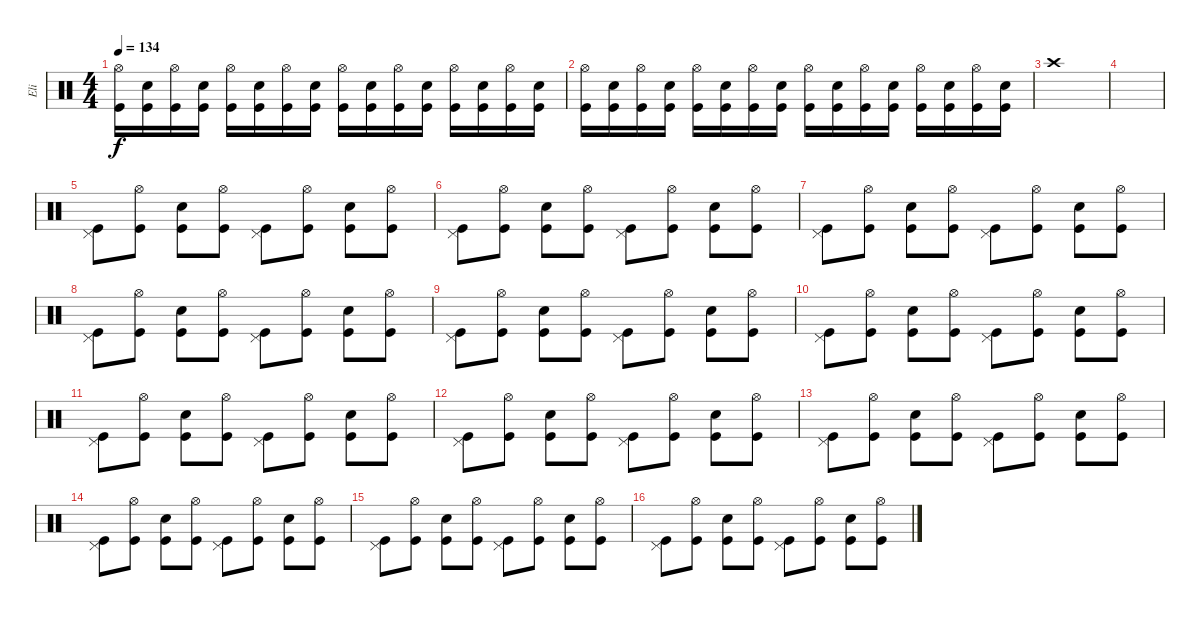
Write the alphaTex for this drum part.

\track ("Eli" "Eli") {instrument percussion}
\staff {score}
\articulation defaults
\ts (4 4)
\tempo 134
\clef neutral
\ks c
("Hi-Hat (open)" "Kick (hit)").16{dy f} ("Electric Snare (hit)" "Kick (hit)").16 ("Hi-Hat (open)" "Kick (hit)").16 ("Electric Snare (hit)" "Kick (hit)").16 ("Hi-Hat (open)" "Kick (hit)").16 ("Electric Snare (hit)" "Kick (hit)").16 ("Hi-Hat (open)" "Kick (hit)").16 ("Electric Snare (hit)" "Kick (hit)").16 ("Hi-Hat (open)" "Kick (hit)").16 ("Electric Snare (hit)" "Kick (hit)").16 ("Hi-Hat (open)" "Kick (hit)").16 ("Electric Snare (hit)" "Kick (hit)").16 ("Hi-Hat (open)" "Kick (hit)").16 ("Electric Snare (hit)" "Kick (hit)").16 ("Hi-Hat (open)" "Kick (hit)").16 ("Electric Snare (hit)" "Kick (hit)").16 |
("Hi-Hat (open)" "Kick (hit)").16 ("Electric Snare (hit)" "Kick (hit)").16 ("Hi-Hat (open)" "Kick (hit)").16 ("Electric Snare (hit)" "Kick (hit)").16 ("Hi-Hat (open)" "Kick (hit)").16 ("Electric Snare (hit)" "Kick (hit)").16 ("Hi-Hat (open)" "Kick (hit)").16 ("Electric Snare (hit)" "Kick (hit)").16 ("Hi-Hat (open)" "Kick (hit)").16 ("Electric Snare (hit)" "Kick (hit)").16 ("Hi-Hat (open)" "Kick (hit)").16 ("Electric Snare (hit)" "Kick (hit)").16 ("Hi-Hat (open)" "Kick (hit)").16 ("Electric Snare (hit)" "Kick (hit)").16 ("Hi-Hat (open)" "Kick (hit)").16 ("Electric Snare (hit)" "Kick (hit)").16 |
"Crash high (hit)".1 |
|
("Pedal Hi-Hat (hit)" "Kick (hit)").8 ("Hi-Hat (open)" "Kick (hit)").8 ("Electric Snare (hit)" "Kick (hit)").8 ("Hi-Hat (open)" "Kick (hit)").8 ("Pedal Hi-Hat (hit)" "Kick (hit)").8 ("Hi-Hat (open)" "Kick (hit)").8 ("Electric Snare (hit)" "Kick (hit)").8 ("Hi-Hat (open)" "Kick (hit)").8 |
("Pedal Hi-Hat (hit)" "Kick (hit)").8 ("Hi-Hat (open)" "Kick (hit)").8 ("Electric Snare (hit)" "Kick (hit)").8 ("Hi-Hat (open)" "Kick (hit)").8 ("Pedal Hi-Hat (hit)" "Kick (hit)").8 ("Hi-Hat (open)" "Kick (hit)").8 ("Electric Snare (hit)" "Kick (hit)").8 ("Hi-Hat (open)" "Kick (hit)").8 |
("Pedal Hi-Hat (hit)" "Kick (hit)").8 ("Hi-Hat (open)" "Kick (hit)").8 ("Electric Snare (hit)" "Kick (hit)").8 ("Hi-Hat (open)" "Kick (hit)").8 ("Pedal Hi-Hat (hit)" "Kick (hit)").8 ("Hi-Hat (open)" "Kick (hit)").8 ("Electric Snare (hit)" "Kick (hit)").8 ("Hi-Hat (open)" "Kick (hit)").8 |
("Pedal Hi-Hat (hit)" "Kick (hit)").8 ("Hi-Hat (open)" "Kick (hit)").8 ("Electric Snare (hit)" "Kick (hit)").8 ("Hi-Hat (open)" "Kick (hit)").8 ("Pedal Hi-Hat (hit)" "Kick (hit)").8 ("Hi-Hat (open)" "Kick (hit)").8 ("Electric Snare (hit)" "Kick (hit)").8 ("Hi-Hat (open)" "Kick (hit)").8 |
("Pedal Hi-Hat (hit)" "Kick (hit)").8 ("Hi-Hat (open)" "Kick (hit)").8 ("Electric Snare (hit)" "Kick (hit)").8 ("Hi-Hat (open)" "Kick (hit)").8 ("Pedal Hi-Hat (hit)" "Kick (hit)").8 ("Hi-Hat (open)" "Kick (hit)").8 ("Electric Snare (hit)" "Kick (hit)").8 ("Hi-Hat (open)" "Kick (hit)").8 |
("Pedal Hi-Hat (hit)" "Kick (hit)").8 ("Hi-Hat (open)" "Kick (hit)").8 ("Electric Snare (hit)" "Kick (hit)").8 ("Hi-Hat (open)" "Kick (hit)").8 ("Pedal Hi-Hat (hit)" "Kick (hit)").8 ("Hi-Hat (open)" "Kick (hit)").8 ("Electric Snare (hit)" "Kick (hit)").8 ("Hi-Hat (open)" "Kick (hit)").8 |
("Pedal Hi-Hat (hit)" "Kick (hit)").8 ("Hi-Hat (open)" "Kick (hit)").8 ("Electric Snare (hit)" "Kick (hit)").8 ("Hi-Hat (open)" "Kick (hit)").8 ("Pedal Hi-Hat (hit)" "Kick (hit)").8 ("Hi-Hat (open)" "Kick (hit)").8 ("Electric Snare (hit)" "Kick (hit)").8 ("Hi-Hat (open)" "Kick (hit)").8 |
("Pedal Hi-Hat (hit)" "Kick (hit)").8 ("Hi-Hat (open)" "Kick (hit)").8 ("Electric Snare (hit)" "Kick (hit)").8 ("Hi-Hat (open)" "Kick (hit)").8 ("Pedal Hi-Hat (hit)" "Kick (hit)").8 ("Hi-Hat (open)" "Kick (hit)").8 ("Electric Snare (hit)" "Kick (hit)").8 ("Hi-Hat (open)" "Kick (hit)").8 |
("Pedal Hi-Hat (hit)" "Kick (hit)").8 ("Hi-Hat (open)" "Kick (hit)").8 ("Electric Snare (hit)" "Kick (hit)").8 ("Hi-Hat (open)" "Kick (hit)").8 ("Pedal Hi-Hat (hit)" "Kick (hit)").8 ("Hi-Hat (open)" "Kick (hit)").8 ("Electric Snare (hit)" "Kick (hit)").8 ("Hi-Hat (open)" "Kick (hit)").8 |
("Pedal Hi-Hat (hit)" "Kick (hit)").8 ("Hi-Hat (open)" "Kick (hit)").8 ("Electric Snare (hit)" "Kick (hit)").8 ("Hi-Hat (open)" "Kick (hit)").8 ("Pedal Hi-Hat (hit)" "Kick (hit)").8 ("Hi-Hat (open)" "Kick (hit)").8 ("Electric Snare (hit)" "Kick (hit)").8 ("Hi-Hat (open)" "Kick (hit)").8 |
("Pedal Hi-Hat (hit)" "Kick (hit)").8 ("Hi-Hat (open)" "Kick (hit)").8 ("Electric Snare (hit)" "Kick (hit)").8 ("Hi-Hat (open)" "Kick (hit)").8 ("Pedal Hi-Hat (hit)" "Kick (hit)").8 ("Hi-Hat (open)" "Kick (hit)").8 ("Electric Snare (hit)" "Kick (hit)").8 ("Hi-Hat (open)" "Kick (hit)").8 |
("Pedal Hi-Hat (hit)" "Kick (hit)").8 ("Hi-Hat (open)" "Kick (hit)").8 ("Electric Snare (hit)" "Kick (hit)").8 ("Hi-Hat (open)" "Kick (hit)").8 ("Pedal Hi-Hat (hit)" "Kick (hit)").8 ("Hi-Hat (open)" "Kick (hit)").8 ("Electric Snare (hit)" "Kick (hit)").8 ("Hi-Hat (open)" "Kick (hit)").8
